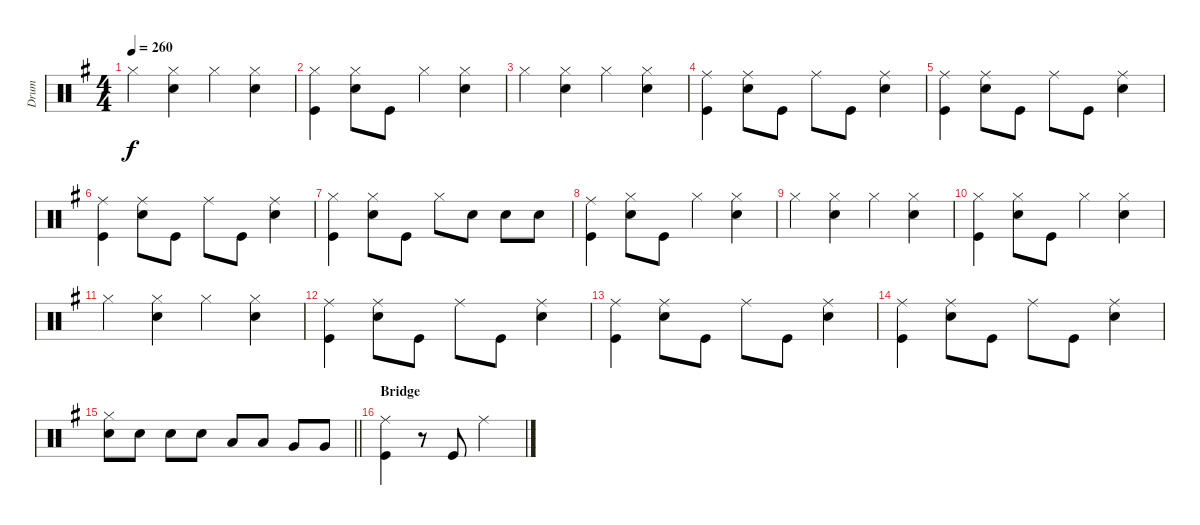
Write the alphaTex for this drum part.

\track ("Drum" "Drum") {instrument percussion}
\staff {score}
\articulation defaults
\ts (4 4)
\tempo 260
\clef neutral
\ks g "Hi-Hat (closed)".4{dy f}
("Hi-Hat (closed)" "Snare (hit) 2").4 "Hi-Hat (closed)".4 ("Hi-Hat (closed)" "Snare (hit) 2").4 |
("Hi-Hat (closed)" "Kick (hit)").4 ("Hi-Hat (closed)" "Snare (hit) 2").8 "Kick (hit)".8 "Hi-Hat (closed)".4 ("Hi-Hat (closed)" "Snare (hit) 2").4 |
"Hi-Hat (closed)".4 ("Hi-Hat (closed)" "Snare (hit) 2").4 "Hi-Hat (closed)".4 ("Hi-Hat (closed)" "Snare (hit) 2").4 |
("Ride (middle)" "Kick (hit)").4 ("Ride (middle)" "Snare (hit) 2").8 "Kick (hit)".8 "Ride (middle)".8 "Kick (hit)".8 ("Ride (middle)" "Snare (hit) 2").4 |
("Ride (middle)" "Kick (hit)").4 ("Ride (middle)" "Snare (hit) 2").8 "Kick (hit)".8 "Ride (middle)".8 "Kick (hit)".8 ("Ride (middle)" "Snare (hit) 2").4 |
("Ride (middle)" "Kick (hit)").4 ("Ride (middle)" "Snare (hit) 2").8 "Kick (hit)".8 "Ride (middle)".8 "Kick (hit)".8 ("Ride (middle)" "Snare (hit) 2").4 |
("Hi-Hat (closed)" "Kick (hit)").4 ("Hi-Hat (closed)" "Snare (hit) 2").8 "Kick (hit)".8 "Hi-Hat (closed)".8 "Snare (hit) 2".8 "Snare (hit) 2".8 "Snare (hit) 2".8 |
("Ride (middle)" "Kick (hit)").4 ("Hi-Hat (closed)" "Snare (hit) 2").8 "Kick (hit)".8 "Hi-Hat (closed)".4 ("Hi-Hat (closed)" "Snare (hit) 2").4 |
"Hi-Hat (closed)".4 ("Hi-Hat (closed)" "Snare (hit) 2").4 "Hi-Hat (closed)".4 ("Hi-Hat (closed)" "Snare (hit) 2").4 |
("Hi-Hat (closed)" "Kick (hit)").4 ("Hi-Hat (closed)" "Snare (hit) 2").8 "Kick (hit)".8 "Hi-Hat (closed)".4 ("Hi-Hat (closed)" "Snare (hit) 2").4 |
"Hi-Hat (closed)".4 ("Hi-Hat (closed)" "Snare (hit) 2").4 "Hi-Hat (closed)".4 ("Hi-Hat (closed)" "Snare (hit) 2").4 |
("Ride (middle)" "Kick (hit)").4 ("Ride (middle)" "Snare (hit) 2").8 "Kick (hit)".8 "Ride (middle)".8 "Kick (hit)".8 ("Ride (middle)" "Snare (hit) 2").4 |
("Ride (middle)" "Kick (hit)").4 ("Ride (middle)" "Snare (hit) 2").8 "Kick (hit)".8 "Ride (middle)".8 "Kick (hit)".8 ("Ride (middle)" "Snare (hit) 2").4 |
("Ride (middle)" "Kick (hit)").4 ("Ride (middle)" "Snare (hit) 2").8 "Kick (hit)".8 "Ride (middle)".8 "Kick (hit)".8 ("Ride (middle)" "Snare (hit) 2").4 |
\barLineRight lightlight
("Hi-Hat (closed)" "Snare (hit) 2").8 "Snare (hit) 2".8 "Snare (hit) 2".8 "Snare (hit) 2".8 "Low Tom (hit)".8 "Low Tom (hit)".8 "Very Low Tom (hit)".8 "Very Low Tom (hit)".8 |
\section ("" "Bridge")
("Ride (middle)" "Kick (hit)").4 r.8 "Kick (hit)".8 "Ride (middle)".2
